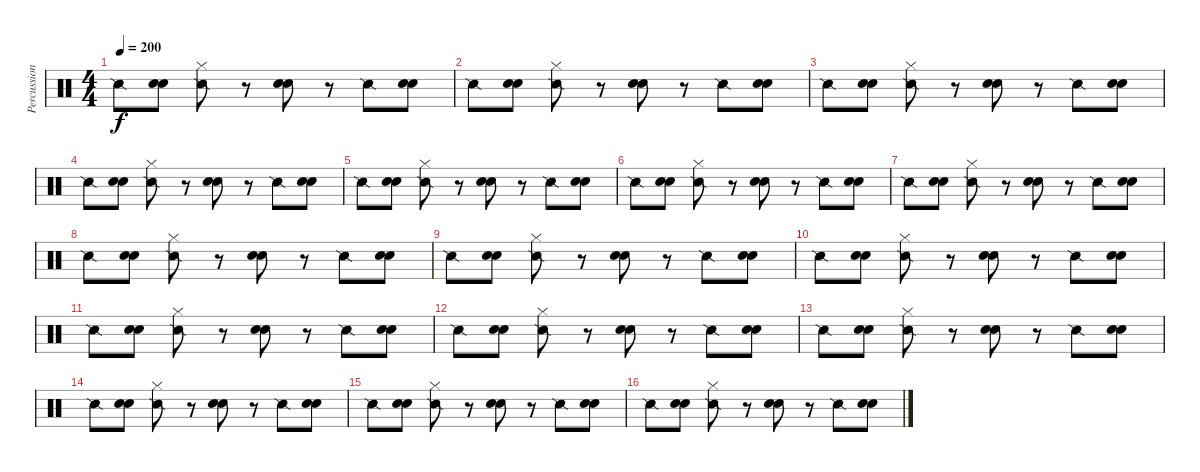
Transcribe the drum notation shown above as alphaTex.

\track ("Percussion" "Percussion") {instrument percussion}
\staff {score}
\articulation defaults
\ts (4 4)
\tempo 200
\clef neutral
\ks c "Snare (side stick) 2".8{dy f}
("Hand Clap (hit)" "Electric Snare (hit)").8 ("Snare (side stick) 2" "Hi-Hat (closed)").8 r.8 ("Hand Clap (hit)" "Electric Snare (hit)").8 r.8 "Snare (side stick) 2".8 ("Hand Clap (hit)" "Electric Snare (hit)").8 |
"Snare (side stick) 2".8 ("Hand Clap (hit)" "Electric Snare (hit)").8 ("Snare (side stick) 2" "Hi-Hat (closed)").8 r.8 ("Hand Clap (hit)" "Electric Snare (hit)").8 r.8 "Snare (side stick) 2".8 ("Hand Clap (hit)" "Electric Snare (hit)").8 |
"Snare (side stick) 2".8 ("Hand Clap (hit)" "Electric Snare (hit)").8 ("Snare (side stick) 2" "Hi-Hat (closed)").8 r.8 ("Hand Clap (hit)" "Electric Snare (hit)").8 r.8 "Snare (side stick) 2".8 ("Hand Clap (hit)" "Electric Snare (hit)").8 |
"Snare (side stick) 2".8 ("Hand Clap (hit)" "Electric Snare (hit)").8 ("Snare (side stick) 2" "Hi-Hat (closed)").8 r.8 ("Hand Clap (hit)" "Electric Snare (hit)").8 r.8 "Snare (side stick) 2".8 ("Hand Clap (hit)" "Electric Snare (hit)").8 |
"Snare (side stick) 2".8 ("Hand Clap (hit)" "Electric Snare (hit)").8 ("Snare (side stick) 2" "Hi-Hat (closed)").8 r.8 ("Hand Clap (hit)" "Electric Snare (hit)").8 r.8 "Snare (side stick) 2".8 ("Hand Clap (hit)" "Electric Snare (hit)").8 |
"Snare (side stick) 2".8 ("Hand Clap (hit)" "Electric Snare (hit)").8 ("Snare (side stick) 2" "Hi-Hat (closed)").8 r.8 ("Hand Clap (hit)" "Electric Snare (hit)").8 r.8 "Snare (side stick) 2".8 ("Hand Clap (hit)" "Electric Snare (hit)").8 |
"Snare (side stick) 2".8 ("Hand Clap (hit)" "Electric Snare (hit)").8 ("Snare (side stick) 2" "Hi-Hat (closed)").8 r.8 ("Hand Clap (hit)" "Electric Snare (hit)").8 r.8 "Snare (side stick) 2".8 ("Hand Clap (hit)" "Electric Snare (hit)").8 |
"Snare (side stick) 2".8 ("Hand Clap (hit)" "Electric Snare (hit)").8 ("Snare (side stick) 2" "Hi-Hat (closed)").8 r.8 ("Hand Clap (hit)" "Electric Snare (hit)").8 r.8 "Snare (side stick) 2".8 ("Hand Clap (hit)" "Electric Snare (hit)").8 |
"Snare (side stick) 2".8 ("Hand Clap (hit)" "Electric Snare (hit)").8 ("Snare (side stick) 2" "Hi-Hat (closed)").8 r.8 ("Hand Clap (hit)" "Electric Snare (hit)").8 r.8 "Snare (side stick) 2".8 ("Hand Clap (hit)" "Electric Snare (hit)").8 |
"Snare (side stick) 2".8 ("Hand Clap (hit)" "Electric Snare (hit)").8 ("Snare (side stick) 2" "Hi-Hat (closed)").8 r.8 ("Hand Clap (hit)" "Electric Snare (hit)").8 r.8 "Snare (side stick) 2".8 ("Hand Clap (hit)" "Electric Snare (hit)").8 |
"Snare (side stick) 2".8 ("Hand Clap (hit)" "Electric Snare (hit)").8 ("Snare (side stick) 2" "Hi-Hat (closed)").8 r.8 ("Hand Clap (hit)" "Electric Snare (hit)").8 r.8 "Snare (side stick) 2".8 ("Hand Clap (hit)" "Electric Snare (hit)").8 |
"Snare (side stick) 2".8 ("Hand Clap (hit)" "Electric Snare (hit)").8 ("Snare (side stick) 2" "Hi-Hat (closed)").8 r.8 ("Hand Clap (hit)" "Electric Snare (hit)").8 r.8 "Snare (side stick) 2".8 ("Hand Clap (hit)" "Electric Snare (hit)").8 |
"Snare (side stick) 2".8 ("Hand Clap (hit)" "Electric Snare (hit)").8 ("Snare (side stick) 2" "Hi-Hat (closed)").8 r.8 ("Hand Clap (hit)" "Electric Snare (hit)").8 r.8 "Snare (side stick) 2".8 ("Hand Clap (hit)" "Electric Snare (hit)").8 |
"Snare (side stick) 2".8 ("Hand Clap (hit)" "Electric Snare (hit)").8 ("Snare (side stick) 2" "Hi-Hat (closed)").8 r.8 ("Hand Clap (hit)" "Electric Snare (hit)").8 r.8 "Snare (side stick) 2".8 ("Hand Clap (hit)" "Electric Snare (hit)").8 |
"Snare (side stick) 2".8 ("Hand Clap (hit)" "Electric Snare (hit)").8 ("Snare (side stick) 2" "Hi-Hat (closed)").8 r.8 ("Hand Clap (hit)" "Electric Snare (hit)").8 r.8 "Snare (side stick) 2".8 ("Hand Clap (hit)" "Electric Snare (hit)").8 |
"Snare (side stick) 2".8 ("Hand Clap (hit)" "Electric Snare (hit)").8 ("Snare (side stick) 2" "Hi-Hat (closed)").8 r.8 ("Hand Clap (hit)" "Electric Snare (hit)").8 r.8 "Snare (side stick) 2".8 ("Hand Clap (hit)" "Electric Snare (hit)").8
